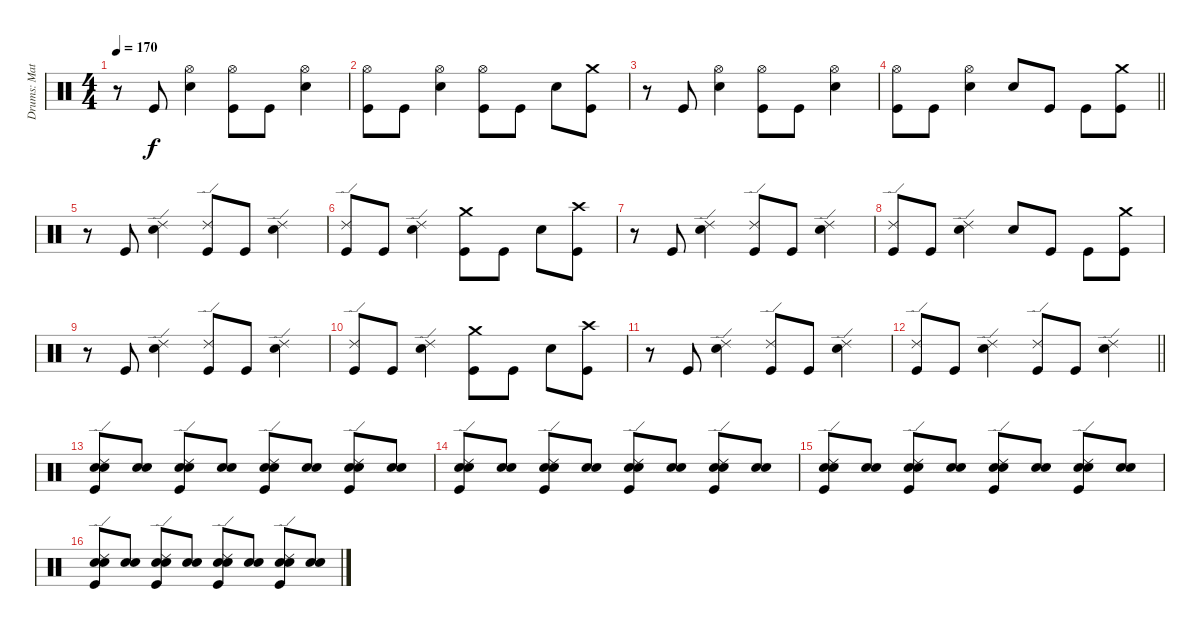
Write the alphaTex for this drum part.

\track ("Drums: Matt" "Drums: Mat") {instrument percussion}
\staff {score}
\articulation defaults
\ts (4 4)
\tempo 170
\clef neutral
\ks c
r.8{dy f} "Kick (hit)".8 ("Snare (hit) 2" "Hi-Hat (open)").4 ("Kick (hit)" "Hi-Hat (open)").8 "Kick (hit)".8 ("Hi-Hat (open)" "Snare (hit) 2").4 |
("Kick (hit)" "Hi-Hat (open)").8 "Kick (hit)".8 ("Snare (hit) 2" "Hi-Hat (open)").4 ("Kick (hit)" "Hi-Hat (open)").8 "Kick (hit)".8 "Snare (hit) 2".8 ("Kick (hit)" "Crash medium (hit)").8 |
r.8 "Kick (hit)".8 ("Hi-Hat (open)" "Snare (hit) 2").4 ("Kick (hit)" "Hi-Hat (open)").8 "Kick (hit)".8 ("Hi-Hat (open)" "Snare (hit) 2").4 |
\barLineRight lightlight
("Hi-Hat (open)" "Kick (hit)").8 "Kick (hit)".8 ("Hi-Hat (open)" "Snare (hit) 2").4 "Snare (hit) 2".8 "Kick (hit)".8 "Kick (hit)".8 ("Crash medium (hit)" "Kick (hit)").8 |
r.8 "Kick (hit)".8 ("Snare (hit) 2" "Ride (edge) 2").4 ("Kick (hit)" "Ride (edge) 2").8 "Kick (hit)".8 ("Ride (edge) 2" "Snare (hit) 2").4 |
("Ride (edge) 2" "Kick (hit)").8 "Kick (hit)".8 ("Snare (hit) 2" "Ride (edge) 2").4 ("Kick (hit)" "Crash medium (hit)").8 "Kick (hit)".8 "Snare (hit) 2".8 ("Kick (hit)" "Crash high (hit)").8 |
r.8 "Kick (hit)".8 ("Ride (edge) 2" "Snare (hit) 2").4 ("Kick (hit)" "Ride (edge) 2").8 "Kick (hit)".8 ("Snare (hit) 2" "Ride (edge) 2").4 |
("Ride (edge) 2" "Kick (hit)").8 "Kick (hit)".8 ("Snare (hit) 2" "Ride (edge) 2").4 "Snare (hit) 2".8 "Kick (hit)".8 "Kick (hit)".8 ("Crash medium (hit)" "Kick (hit)").8 |
r.8 "Kick (hit)".8 ("Ride (edge) 2" "Snare (hit) 2").4 ("Kick (hit)" "Ride (edge) 2").8 "Kick (hit)".8 ("Snare (hit) 2" "Ride (edge) 2").4 |
("Ride (edge) 2" "Kick (hit)").8 "Kick (hit)".8 ("Snare (hit) 2" "Ride (edge) 2").4 ("Crash medium (hit)" "Kick (hit)").8 "Kick (hit)".8 "Snare (hit) 2".8 ("Kick (hit)" "Crash high (hit)").8 |
r.8 "Kick (hit)".8 ("Ride (edge) 2" "Snare (hit) 2").4 ("Ride (edge) 2" "Kick (hit)").8 "Kick (hit)".8 ("Ride (edge) 2" "Snare (hit) 2").4 |
\barLineRight lightlight
("Ride (edge) 2" "Kick (hit)").8 "Kick (hit)".8 ("Snare (hit) 2" "Ride (edge) 2").4 ("Kick (hit)" "Ride (edge) 2").8 "Kick (hit)".8 ("Snare (hit) 2" "Ride (edge) 2").4 |
("Ride (edge) 2" "Kick (hit)" "Snare (hit) 2" "Snare (hit) 2").8 ("Snare (hit) 2" "Snare (hit) 2").8 ("Snare (hit) 2" "Ride (edge) 2" "Kick (hit)" "Snare (hit) 2").8 ("Snare (hit) 2" "Snare (hit) 2").8 ("Ride (edge) 2" "Snare (hit) 2" "Kick (hit)" "Snare (hit) 2").8 ("Snare (hit) 2" "Snare (hit) 2").8 ("Snare (hit) 2" "Kick (hit)" "Ride (edge) 2" "Snare (hit) 2").8 ("Snare (hit) 2" "Snare (hit) 2").8 |
("Kick (hit)" "Snare (hit) 2" "Ride (edge) 2" "Snare (hit) 2").8 ("Snare (hit) 2" "Snare (hit) 2").8 ("Ride (edge) 2" "Snare (hit) 2" "Kick (hit)" "Snare (hit) 2").8 ("Snare (hit) 2" "Snare (hit) 2").8 ("Kick (hit)" "Snare (hit) 2" "Ride (edge) 2" "Snare (hit) 2").8 ("Snare (hit) 2" "Snare (hit) 2").8 ("Kick (hit)" "Snare (hit) 2" "Ride (edge) 2" "Snare (hit) 2").8 ("Snare (hit) 2" "Snare (hit) 2").8 |
("Ride (edge) 2" "Snare (hit) 2" "Kick (hit)" "Snare (hit) 2").8 ("Snare (hit) 2" "Snare (hit) 2").8 ("Kick (hit)" "Snare (hit) 2" "Ride (edge) 2" "Snare (hit) 2").8 ("Snare (hit) 2" "Snare (hit) 2").8 ("Kick (hit)" "Snare (hit) 2" "Ride (edge) 2" "Snare (hit) 2").8 ("Snare (hit) 2" "Snare (hit) 2").8 ("Kick (hit)" "Ride (edge) 2" "Snare (hit) 2" "Snare (hit) 2").8 ("Snare (hit) 2" "Snare (hit) 2").8 |
("Kick (hit)" "Snare (hit) 2" "Ride (edge) 2" "Snare (hit) 2").8 ("Snare (hit) 2" "Snare (hit) 2").8 ("Ride (edge) 2" "Snare (hit) 2" "Kick (hit)" "Snare (hit) 2").8 ("Snare (hit) 2" "Snare (hit) 2").8 ("Kick (hit)" "Snare (hit) 2" "Ride (edge) 2" "Snare (hit) 2").8 ("Snare (hit) 2" "Snare (hit) 2").8 ("Kick (hit)" "Snare (hit) 2" "Ride (edge) 2" "Snare (hit) 2").8 ("Snare (hit) 2" "Snare (hit) 2").8
